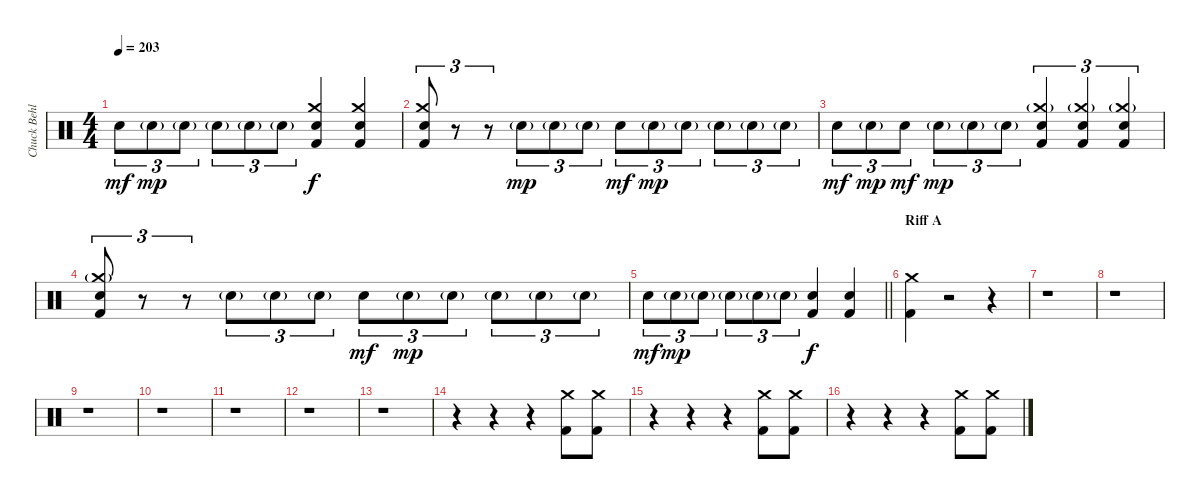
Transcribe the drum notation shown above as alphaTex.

\track ("Chuck Behler" "Chuck Behl") {instrument percussion}
\staff {score}
\articulation defaults
\ts (4 4)
\tempo 203
\clef neutral
\ks c "Snare (hit) 2".8{tu (3 2) dy mf} "Snare (hit) 2"{g}.8{tu (3 2) dy mp} "Snare (hit) 2"{g}.8{tu (3 2)} "Snare (hit) 2"{g}.8{tu (3 2)} "Snare (hit) 2"{g}.8{tu (3 2)} "Snare (hit) 2"{g}.8{tu (3 2)}
("Crash medium (hit)" "Snare (hit) 2" "Kick (hit) 2").4{dy f} ("Crash medium (hit)" "Snare (hit) 2" "Kick (hit) 2").4 |
("Crash medium (hit)" "Snare (hit) 2" "Kick (hit) 2").8{tu (3 2)} r.8{tu (3 2)} r.8{tu (3 2)} "Snare (hit) 2"{g}.8{tu (3 2) dy mp} "Snare (hit) 2"{g}.8{tu (3 2)} "Snare (hit) 2"{g}.8{tu (3 2)} "Snare (hit) 2".8{tu (3 2) dy mf} "Snare (hit) 2"{g}.8{tu (3 2) dy mp} "Snare (hit) 2"{g}.8{tu (3 2)} "Snare (hit) 2"{g}.8{tu (3 2)} "Snare (hit) 2"{g}.8{tu (3 2)} "Snare (hit) 2"{g}.8{tu (3 2)} |
"Snare (hit) 2".8{tu (3 2) dy mf} "Snare (hit) 2"{g}.8{tu (3 2) dy mp} "Snare (hit) 2".8{tu (3 2) dy mf} "Snare (hit) 2"{g}.8{tu (3 2) dy mp} "Snare (hit) 2"{g}.8{tu (3 2)} "Snare (hit) 2"{g}.8{tu (3 2)} ("Crash medium (hit)"{g} "Snare (hit) 2" "Kick (hit) 2").4{tu (3 2)} ("Crash medium (hit)"{g} "Snare (hit) 2" "Kick (hit) 2").4{tu (3 2)} ("Crash medium (hit)"{g} "Snare (hit) 2" "Kick (hit) 2").4{tu (3 2)} |
("Crash medium (hit)"{g} "Snare (hit) 2" "Kick (hit) 2").8{tu (3 2)} r.8{tu (3 2)} r.8{tu (3 2)} "Snare (hit) 2"{g}.8{tu (3 2)} "Snare (hit) 2"{g}.8{tu (3 2)} "Snare (hit) 2"{g}.8{tu (3 2)} "Snare (hit) 2".8{tu (3 2) dy mf} "Snare (hit) 2"{g}.8{tu (3 2) dy mp} "Snare (hit) 2"{g}.8{tu (3 2)} "Snare (hit) 2"{g}.8{tu (3 2)} "Snare (hit) 2"{g}.8{tu (3 2)} "Snare (hit) 2"{g}.8{tu (3 2)} |
\barLineRight lightlight "Snare (hit) 2".8{tu (3 2) dy mf} "Snare (hit) 2"{g}.8{tu (3 2) dy mp} "Snare (hit) 2"{g}.8{tu (3 2)} "Snare (hit) 2"{g}.8{tu (3 2)} "Snare (hit) 2"{g}.8{tu (3 2)} "Snare (hit) 2"{g}.8{tu (3 2)}
("Snare (hit) 2" "Kick (hit) 2").4{dy f} ("Snare (hit) 2" "Kick (hit) 2").4 |
\section ("" "Riff A")
("Crash medium (hit)" "Kick (hit) 2").4{volume 0} r.2 r.4 |
r.1 |
r.1 |
r.1 |
r.1 |
r.1 |
r.1 |
r.1 |
r.4{volume 16} r.4 r.4 ("Crash medium (hit)" "Kick (hit) 2").8 ("Crash medium (hit)" "Kick (hit) 2").8 |
r.4{volume 0} r.4 r.4 ("Crash medium (hit)" "Kick (hit) 2").8{volume 16} ("Crash medium (hit)" "Kick (hit) 2").8 |
r.4{volume 0} r.4 r.4 ("Crash medium (hit)" "Kick (hit) 2").8{volume 16} ("Crash medium (hit)" "Kick (hit) 2").8
